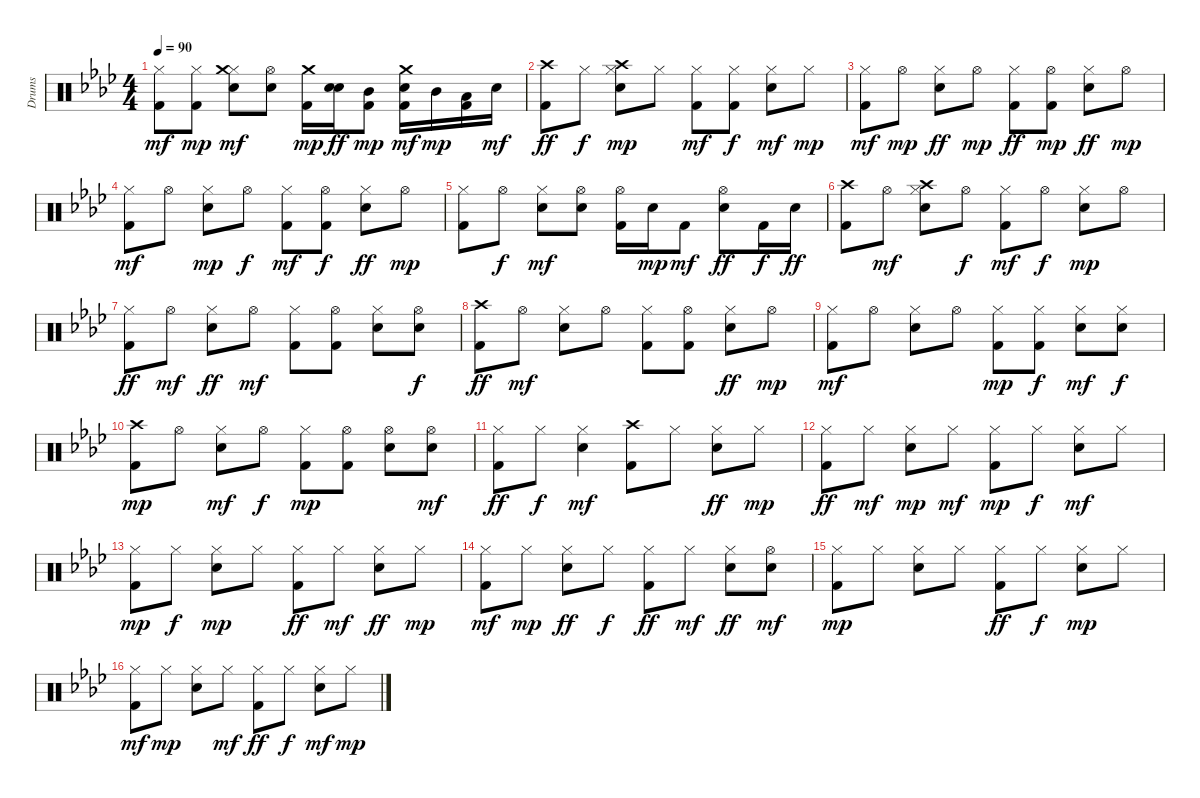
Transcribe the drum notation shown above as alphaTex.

\track ("Drums" "Drums") {instrument percussion}
\staff {score}
\articulation defaults
\ts (4 4)
\tempo 90
\clef neutral
\ks ab
("Kick (hit) 2" "Hi-Hat (closed)").8{dy mf} ("Kick (hit) 2" "Hi-Hat (closed)").8{dy mp} ("Snare (hit) 2" "Hi-Hat (closed)" "Crash medium (hit)").8{dy mf} ("Snare (hit) 2" "Hi-Hat (open)").8 ("Kick (hit) 2" "Crash medium (hit)").16{dy mp} ("Snare (hit) 2" "Snare (hit) 2").16{dy ff} ("Kick (hit) 2" "Mid Tom (hit)").8{dy mp} ("Kick (hit) 2" "Snare (hit) 2" "Crash medium (hit)").16{dy mf} "Mid Tom (hit)".16{dy mp} ("Kick (hit) 2" "Low Tom (hit)").16 "Snare (hit) 2".16{dy mf} |
("Kick (hit) 2" "Crash high (hit)").8{dy ff} "Hi-Hat (closed)".8{dy f} ("Snare (hit) 2" "Hi-Hat (closed)" "Crash high (hit)").8{dy mp} "Hi-Hat (closed)".8 ("Kick (hit) 2" "Hi-Hat (closed)").8{dy mf} ("Kick (hit) 2" "Hi-Hat (closed)").8{dy f} ("Snare (hit) 2" "Hi-Hat (closed)").8{dy mf} "Hi-Hat (closed)".8{dy mp} |
("Kick (hit) 2" "Hi-Hat (closed)").8{dy mf} "Hi-Hat (open)".8{dy mp} ("Snare (hit) 2" "Hi-Hat (closed)").8{dy ff} "Hi-Hat (open)".8{dy mp} ("Kick (hit) 2" "Hi-Hat (closed)").8{dy ff} ("Kick (hit) 2" "Hi-Hat (open)").8{dy mp} ("Snare (hit) 2" "Hi-Hat (closed)").8{dy ff} "Hi-Hat (open)".8{dy mp} |
("Kick (hit) 2" "Hi-Hat (closed)").8{dy mf} "Hi-Hat (open)".8 ("Snare (hit) 2" "Hi-Hat (closed)").8{dy mp} "Hi-Hat (open)".8{dy f} ("Kick (hit) 2" "Hi-Hat (closed)").8{dy mf} ("Kick (hit) 2" "Hi-Hat (open)").8{dy f} ("Snare (hit) 2" "Hi-Hat (closed)").8{dy ff} "Hi-Hat (open)".8{dy mp} |
("Kick (hit) 2" "Hi-Hat (closed)").8 "Hi-Hat (open)".8{dy f} ("Snare (hit) 2" "Hi-Hat (closed)").8{dy mf} ("Snare (hit) 2" "Hi-Hat (open)").8 ("Kick (hit) 2" "Hi-Hat (open)").16 "Snare (hit) 2".16{dy mp} "Kick (hit) 2".8{dy mf} ("Snare (hit) 2" "Hi-Hat (open)").8{dy ff} "Kick (hit) 2".16{dy f} "Snare (hit) 2".16{dy ff} |
("Kick (hit) 2" "Crash high (hit)").8 "Hi-Hat (open)".8{dy mf} ("Snare (hit) 2" "Hi-Hat (closed)" "Crash high (hit)").8 "Hi-Hat (open)".8{dy f} ("Kick (hit) 2" "Hi-Hat (closed)").8{dy mf} "Hi-Hat (open)".8{dy f} ("Snare (hit) 2" "Hi-Hat (closed)").8{dy mp} "Hi-Hat (open)".8 |
("Kick (hit) 2" "Hi-Hat (closed)").8{dy ff} "Hi-Hat (open)".8{dy mf} ("Snare (hit) 2" "Hi-Hat (closed)").8{dy ff} "Hi-Hat (open)".8{dy mf} ("Kick (hit) 2" "Hi-Hat (closed)").8 ("Kick (hit) 2" "Hi-Hat (open)").8 ("Snare (hit) 2" "Hi-Hat (closed)").8 ("Snare (hit) 2" "Hi-Hat (open)").8{dy f} |
("Kick (hit) 2" "Crash high (hit)").8{dy ff} "Hi-Hat (open)".8{dy mf} ("Snare (hit) 2" "Hi-Hat (closed)").8 "Hi-Hat (open)".8 ("Kick (hit) 2" "Hi-Hat (closed)").8 ("Kick (hit) 2" "Hi-Hat (open)").8 ("Snare (hit) 2" "Hi-Hat (closed)").8{dy ff} "Hi-Hat (open)".8{dy mp} |
("Kick (hit) 2" "Hi-Hat (closed)").8{dy mf} "Hi-Hat (open)".8 ("Snare (hit) 2" "Hi-Hat (closed)").8 "Hi-Hat (open)".8 ("Kick (hit) 2" "Hi-Hat (closed)").8{dy mp} ("Kick (hit) 2" "Hi-Hat (closed)").8{dy f} ("Snare (hit) 2" "Hi-Hat (closed)").8{dy mf} ("Snare (hit) 2" "Hi-Hat (closed)").8{dy f} |
("Kick (hit) 2" "Crash high (hit)").8{dy mp} "Hi-Hat (open)".8 ("Snare (hit) 2" "Hi-Hat (closed)").8{dy mf} "Hi-Hat (open)".8{dy f} ("Kick (hit) 2" "Hi-Hat (closed)").8{dy mp} ("Kick (hit) 2" "Hi-Hat (open)").8 ("Snare (hit) 2" "Hi-Hat (open)").8 ("Snare (hit) 2" "Hi-Hat (open)").8{dy mf} |
("Kick (hit) 2" "Hi-Hat (closed)").8{dy ff} "Hi-Hat (closed)".8{dy f} ("Snare (hit) 2" "Hi-Hat (closed)").4{dy mf} ("Kick (hit) 2" "Crash high (hit)").8 "Hi-Hat (closed)".8 ("Snare (hit) 2" "Hi-Hat (closed)").8{dy ff} "Hi-Hat (closed)".8{dy mp} |
("Kick (hit) 2" "Hi-Hat (closed)").8{dy ff} "Hi-Hat (closed)".8{dy mf} ("Snare (hit) 2" "Hi-Hat (closed)").8{dy mp} "Hi-Hat (closed)".8{dy mf} ("Kick (hit) 2" "Hi-Hat (closed)").8{dy mp} "Hi-Hat (closed)".8{dy f} ("Snare (hit) 2" "Hi-Hat (closed)").8{dy mf} "Hi-Hat (closed)".8 |
("Kick (hit) 2" "Hi-Hat (closed)").8{dy mp} "Hi-Hat (closed)".8{dy f} ("Snare (hit) 2" "Hi-Hat (closed)").8{dy mp} "Hi-Hat (closed)".8 ("Kick (hit) 2" "Hi-Hat (closed)").8{dy ff} "Hi-Hat (closed)".8{dy mf} ("Snare (hit) 2" "Hi-Hat (closed)").8{dy ff} "Hi-Hat (closed)".8{dy mp} |
("Kick (hit) 2" "Hi-Hat (closed)").8{dy mf} "Hi-Hat (closed)".8{dy mp} ("Snare (hit) 2" "Hi-Hat (closed)").8{dy ff} "Hi-Hat (closed)".8{dy f} ("Kick (hit) 2" "Hi-Hat (closed)").8{dy ff} "Hi-Hat (closed)".8{dy mf} ("Snare (hit) 2" "Hi-Hat (closed)").8{dy ff} ("Snare (hit) 2" "Hi-Hat (open)").8{dy mf} |
("Kick (hit) 2" "Hi-Hat (closed)").8{dy mp} "Hi-Hat (closed)".8 ("Snare (hit) 2" "Hi-Hat (closed)").8 "Hi-Hat (closed)".8 ("Kick (hit) 2" "Hi-Hat (closed)").8{dy ff} "Hi-Hat (closed)".8{dy f} ("Snare (hit) 2" "Hi-Hat (closed)").8{dy mp} "Hi-Hat (closed)".8 |
("Kick (hit) 2" "Hi-Hat (closed)").8{dy mf} "Hi-Hat (closed)".8{dy mp} ("Snare (hit) 2" "Hi-Hat (closed)").8 "Hi-Hat (closed)".8{dy mf} ("Kick (hit) 2" "Hi-Hat (closed)").8{dy ff} "Hi-Hat (closed)".8{dy f} ("Snare (hit) 2" "Hi-Hat (closed)").8{dy mf} "Hi-Hat (closed)".8{dy mp}
